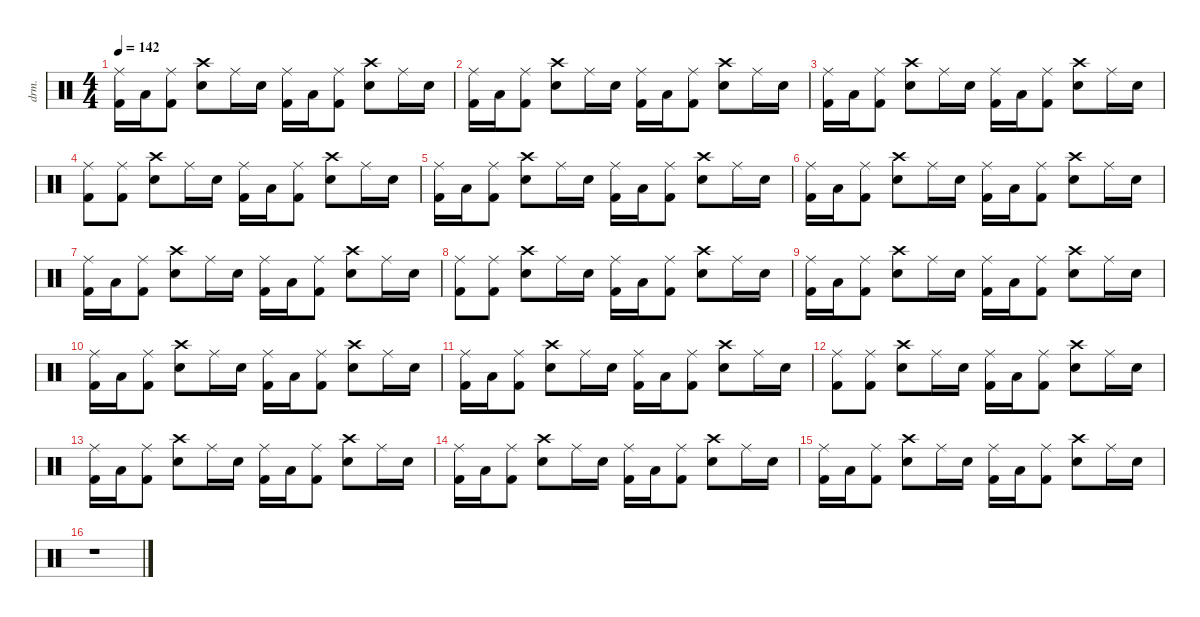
\defaultSystemsLayout 4
\hideDynamics
\bracketExtendMode nobrackets
\otherSystemsTrackNameOrientation horizontal
\track ("Drums" "drm.") {defaultSystemsLayout 4 instrument percussion}
\staff {score}
\articulation defaults
\ts (4 4)
\tempo 142
\clef neutral
\ks c
("Ride (middle)" "Kick (hit) 2").16{dy f beam Down} "Low Tom (hit)".16{beam Down} ("Ride (middle)" "Kick (hit) 2").8{beam Down} ("Crash high (hit)" "Snare (hit) 2").8{beam Down} "Ride (middle)".16{beam Down} "Snare (hit) 2".16{beam Down} ("Ride (middle)" "Kick (hit) 2").16{beam Down} "Low Tom (hit)".16{beam Down} ("Ride (middle)" "Kick (hit) 2").8{beam Down} ("Crash high (hit)" "Snare (hit) 2").8{beam Down} "Ride (middle)".16{beam Down} "Snare (hit) 2".16{beam Down} |
("Ride (middle)" "Kick (hit) 2").16{beam Down} "Low Tom (hit)".16{beam Down} ("Ride (middle)" "Kick (hit) 2").8{beam Down} ("Crash high (hit)" "Snare (hit) 2").8{beam Down} "Ride (middle)".16{beam Down} "Snare (hit) 2".16{beam Down} ("Ride (middle)" "Kick (hit) 2").16{beam Down} "Low Tom (hit)".16{beam Down} ("Ride (middle)" "Kick (hit) 2").8{beam Down} ("Crash high (hit)" "Snare (hit) 2").8{beam Down} "Ride (middle)".16{beam Down} "Snare (hit) 2".16{beam Down} |
("Ride (middle)" "Kick (hit) 2").16{beam Down} "Low Tom (hit)".16{beam Down} ("Ride (middle)" "Kick (hit) 2").8{beam Down} ("Crash high (hit)" "Snare (hit) 2").8{beam Down} "Ride (middle)".16{beam Down} "Snare (hit) 2".16{beam Down} ("Ride (middle)" "Kick (hit) 2").16{beam Down} "Low Tom (hit)".16{beam Down} ("Ride (middle)" "Kick (hit) 2").8{beam Down} ("Crash high (hit)" "Snare (hit) 2").8{beam Down} "Ride (middle)".16{beam Down} "Snare (hit) 2".16{beam Down} |
("Ride (middle)" "Kick (hit) 2").8{beam Down} ("Ride (middle)" "Kick (hit) 2").8{beam Down} ("Crash high (hit)" "Snare (hit) 2").8{beam Down} "Ride (middle)".16{beam Down} "Snare (hit) 2".16{beam Down} ("Ride (middle)" "Kick (hit) 2").16{beam Down} "Low Tom (hit)".16{beam Down} ("Ride (middle)" "Kick (hit) 2").8{beam Down} ("Crash high (hit)" "Snare (hit) 2").8{beam Down} "Ride (middle)".16{beam Down} "Snare (hit) 2".16{beam Down} |
("Ride (middle)" "Kick (hit) 2").16{beam Down} "Low Tom (hit)".16{beam Down} ("Ride (middle)" "Kick (hit) 2").8{beam Down} ("Crash high (hit)" "Snare (hit) 2").8{beam Down} "Ride (middle)".16{beam Down} "Snare (hit) 2".16{beam Down} ("Ride (middle)" "Kick (hit) 2").16{beam Down} "Low Tom (hit)".16{beam Down} ("Ride (middle)" "Kick (hit) 2").8{beam Down} ("Crash high (hit)" "Snare (hit) 2").8{beam Down} "Ride (middle)".16{beam Down} "Snare (hit) 2".16{beam Down} |
("Ride (middle)" "Kick (hit) 2").16{beam Down} "Low Tom (hit)".16{beam Down} ("Ride (middle)" "Kick (hit) 2").8{beam Down} ("Crash high (hit)" "Snare (hit) 2").8{beam Down} "Ride (middle)".16{beam Down} "Snare (hit) 2".16{beam Down} ("Ride (middle)" "Kick (hit) 2").16{beam Down} "Low Tom (hit)".16{beam Down} ("Ride (middle)" "Kick (hit) 2").8{beam Down} ("Crash high (hit)" "Snare (hit) 2").8{beam Down} "Ride (middle)".16{beam Down} "Snare (hit) 2".16{beam Down} |
("Ride (middle)" "Kick (hit) 2").16{beam Down} "Low Tom (hit)".16{beam Down} ("Ride (middle)" "Kick (hit) 2").8{beam Down} ("Crash high (hit)" "Snare (hit) 2").8{beam Down} "Ride (middle)".16{beam Down} "Snare (hit) 2".16{beam Down} ("Ride (middle)" "Kick (hit) 2").16{beam Down} "Low Tom (hit)".16{beam Down} ("Ride (middle)" "Kick (hit) 2").8{beam Down} ("Crash high (hit)" "Snare (hit) 2").8{beam Down} "Ride (middle)".16{beam Down} "Snare (hit) 2".16{beam Down} |
("Ride (middle)" "Kick (hit) 2").8{beam Down} ("Ride (middle)" "Kick (hit) 2").8{beam Down} ("Crash high (hit)" "Snare (hit) 2").8{beam Down} "Ride (middle)".16{beam Down} "Snare (hit) 2".16{beam Down} ("Ride (middle)" "Kick (hit) 2").16{beam Down} "Low Tom (hit)".16{beam Down} ("Ride (middle)" "Kick (hit) 2").8{beam Down} ("Crash high (hit)" "Snare (hit) 2").8{beam Down} "Ride (middle)".16{beam Down} "Snare (hit) 2".16{beam Down} |
("Ride (middle)" "Kick (hit) 2").16{beam Down} "Low Tom (hit)".16{beam Down} ("Ride (middle)" "Kick (hit) 2").8{beam Down} ("Crash high (hit)" "Snare (hit) 2").8{beam Down} "Ride (middle)".16{beam Down} "Snare (hit) 2".16{beam Down} ("Ride (middle)" "Kick (hit) 2").16{beam Down} "Low Tom (hit)".16{beam Down} ("Ride (middle)" "Kick (hit) 2").8{beam Down} ("Crash high (hit)" "Snare (hit) 2").8{beam Down} "Ride (middle)".16{beam Down} "Snare (hit) 2".16{beam Down} |
("Ride (middle)" "Kick (hit) 2").16{beam Down} "Low Tom (hit)".16{beam Down} ("Ride (middle)" "Kick (hit) 2").8{beam Down} ("Crash high (hit)" "Snare (hit) 2").8{beam Down} "Ride (middle)".16{beam Down} "Snare (hit) 2".16{beam Down} ("Ride (middle)" "Kick (hit) 2").16{beam Down} "Low Tom (hit)".16{beam Down} ("Ride (middle)" "Kick (hit) 2").8{beam Down} ("Crash high (hit)" "Snare (hit) 2").8{beam Down} "Ride (middle)".16{beam Down} "Snare (hit) 2".16{beam Down} |
("Ride (middle)" "Kick (hit) 2").16{beam Down} "Low Tom (hit)".16{beam Down} ("Ride (middle)" "Kick (hit) 2").8{beam Down} ("Crash high (hit)" "Snare (hit) 2").8{beam Down} "Ride (middle)".16{beam Down} "Snare (hit) 2".16{beam Down} ("Ride (middle)" "Kick (hit) 2").16{beam Down} "Low Tom (hit)".16{beam Down} ("Ride (middle)" "Kick (hit) 2").8{beam Down} ("Crash high (hit)" "Snare (hit) 2").8{beam Down} "Ride (middle)".16{beam Down} "Snare (hit) 2".16{beam Down} |
("Ride (middle)" "Kick (hit) 2").8{beam Down} ("Ride (middle)" "Kick (hit) 2").8{beam Down} ("Crash high (hit)" "Snare (hit) 2").8{beam Down} "Ride (middle)".16{beam Down} "Snare (hit) 2".16{beam Down} ("Ride (middle)" "Kick (hit) 2").16{beam Down} "Low Tom (hit)".16{beam Down} ("Ride (middle)" "Kick (hit) 2").8{beam Down} ("Crash high (hit)" "Snare (hit) 2").8{beam Down} "Ride (middle)".16{beam Down} "Snare (hit) 2".16{beam Down} |
("Ride (middle)" "Kick (hit) 2").16{beam Down} "Low Tom (hit)".16{beam Down} ("Ride (middle)" "Kick (hit) 2").8{beam Down} ("Crash high (hit)" "Snare (hit) 2").8{beam Down} "Ride (middle)".16{beam Down} "Snare (hit) 2".16{beam Down} ("Ride (middle)" "Kick (hit) 2").16{beam Down} "Low Tom (hit)".16{beam Down} ("Ride (middle)" "Kick (hit) 2").8{beam Down} ("Crash high (hit)" "Snare (hit) 2").8{beam Down} "Ride (middle)".16{beam Down} "Snare (hit) 2".16{beam Down} |
("Ride (middle)" "Kick (hit) 2").16{beam Down} "Low Tom (hit)".16{beam Down} ("Ride (middle)" "Kick (hit) 2").8{beam Down} ("Crash high (hit)" "Snare (hit) 2").8{beam Down} "Ride (middle)".16{beam Down} "Snare (hit) 2".16{beam Down} ("Ride (middle)" "Kick (hit) 2").16{beam Down} "Low Tom (hit)".16{beam Down} ("Ride (middle)" "Kick (hit) 2").8{beam Down} ("Crash high (hit)" "Snare (hit) 2").8{beam Down} "Ride (middle)".16{beam Down} "Snare (hit) 2".16{beam Down} |
("Ride (middle)" "Kick (hit) 2").16{beam Down} "Low Tom (hit)".16{beam Down} ("Ride (middle)" "Kick (hit) 2").8{beam Down} ("Crash high (hit)" "Snare (hit) 2").8{beam Down} "Ride (middle)".16{beam Down} "Snare (hit) 2".16{beam Down} ("Ride (middle)" "Kick (hit) 2").16{beam Down} "Low Tom (hit)".16{beam Down} ("Ride (middle)" "Kick (hit) 2").8{beam Down} ("Crash high (hit)" "Snare (hit) 2").8{beam Down} "Ride (middle)".16{beam Down} "Snare (hit) 2".16{beam Down} |
r.1{beam Down}
